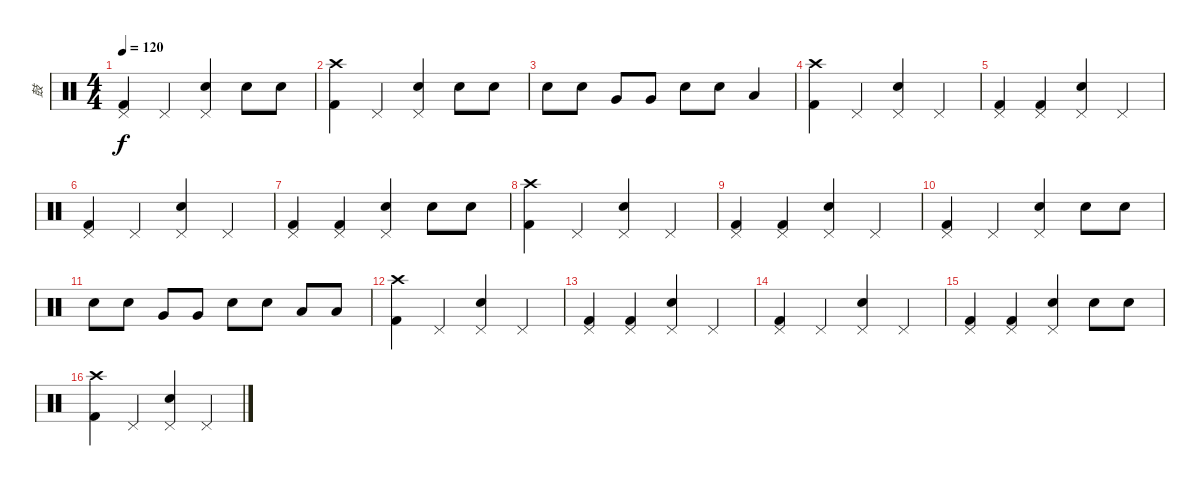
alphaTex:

\track ("鼓" "鼓") {instrument percussion}
\staff {score}
\articulation defaults
\ts (4 4)
\tempo 120
\clef neutral
\ks c
("Pedal Hi-Hat (hit)" "Kick (hit) 2").4{dy f} "Pedal Hi-Hat (hit)".4 ("Pedal Hi-Hat (hit)" "Electric Snare (hit)").4 "Electric Snare (hit)".8 "Electric Snare (hit)".8 |
("Crash high (hit)" "Kick (hit) 2").4 "Pedal Hi-Hat (hit)".4 ("Pedal Hi-Hat (hit)" "Electric Snare (hit)").4 "Electric Snare (hit)".8 "Electric Snare (hit)".8 |
"Electric Snare (hit)".8 "Electric Snare (hit)".8 "Very Low Tom (hit)".8 "Very Low Tom (hit)".8 "Electric Snare (hit)".8 "Electric Snare (hit)".8 "Low Floor Tom (hit)".4 |
("Crash high (hit)" "Kick (hit) 2").4 "Pedal Hi-Hat (hit)".4 ("Pedal Hi-Hat (hit)" "Electric Snare (hit)").4 "Pedal Hi-Hat (hit)".4 |
("Pedal Hi-Hat (hit)" "Kick (hit) 2").4 ("Pedal Hi-Hat (hit)" "Kick (hit) 2").4 ("Pedal Hi-Hat (hit)" "Electric Snare (hit)").4 "Pedal Hi-Hat (hit)".4 |
("Pedal Hi-Hat (hit)" "Kick (hit) 2").4 "Pedal Hi-Hat (hit)".4 ("Pedal Hi-Hat (hit)" "Electric Snare (hit)").4 "Pedal Hi-Hat (hit)".4 |
("Pedal Hi-Hat (hit)" "Kick (hit) 2").4 ("Pedal Hi-Hat (hit)" "Kick (hit) 2").4 ("Pedal Hi-Hat (hit)" "Electric Snare (hit)").4 "Electric Snare (hit)".8 "Electric Snare (hit)".8 |
("Crash high (hit)" "Kick (hit) 2").4 "Pedal Hi-Hat (hit)".4 ("Pedal Hi-Hat (hit)" "Electric Snare (hit)").4 "Pedal Hi-Hat (hit)".4 |
("Pedal Hi-Hat (hit)" "Kick (hit) 2").4 ("Pedal Hi-Hat (hit)" "Kick (hit) 2").4 ("Pedal Hi-Hat (hit)" "Electric Snare (hit)").4 "Pedal Hi-Hat (hit)".4 |
("Pedal Hi-Hat (hit)" "Kick (hit) 2").4 "Pedal Hi-Hat (hit)".4 ("Pedal Hi-Hat (hit)" "Electric Snare (hit)").4 "Electric Snare (hit)".8 "Electric Snare (hit)".8 |
"Electric Snare (hit)".8 "Electric Snare (hit)".8 "Very Low Tom (hit)".8 "Very Low Tom (hit)".8 "Electric Snare (hit)".8 "Electric Snare (hit)".8 "Low Floor Tom (hit)".8 "Low Floor Tom (hit)".8 |
("Crash high (hit)" "Kick (hit) 2").4 "Pedal Hi-Hat (hit)".4 ("Pedal Hi-Hat (hit)" "Electric Snare (hit)").4 "Pedal Hi-Hat (hit)".4 |
("Pedal Hi-Hat (hit)" "Kick (hit) 2").4 ("Pedal Hi-Hat (hit)" "Kick (hit) 2").4 ("Pedal Hi-Hat (hit)" "Electric Snare (hit)").4 "Pedal Hi-Hat (hit)".4 |
("Pedal Hi-Hat (hit)" "Kick (hit) 2").4 "Pedal Hi-Hat (hit)".4 ("Pedal Hi-Hat (hit)" "Electric Snare (hit)").4 "Pedal Hi-Hat (hit)".4 |
("Pedal Hi-Hat (hit)" "Kick (hit) 2").4 ("Pedal Hi-Hat (hit)" "Kick (hit) 2").4 ("Pedal Hi-Hat (hit)" "Electric Snare (hit)").4 "Electric Snare (hit)".8 "Electric Snare (hit)".8 |
("Crash high (hit)" "Kick (hit) 2").4 "Pedal Hi-Hat (hit)".4 ("Pedal Hi-Hat (hit)" "Electric Snare (hit)").4 "Pedal Hi-Hat (hit)".4
